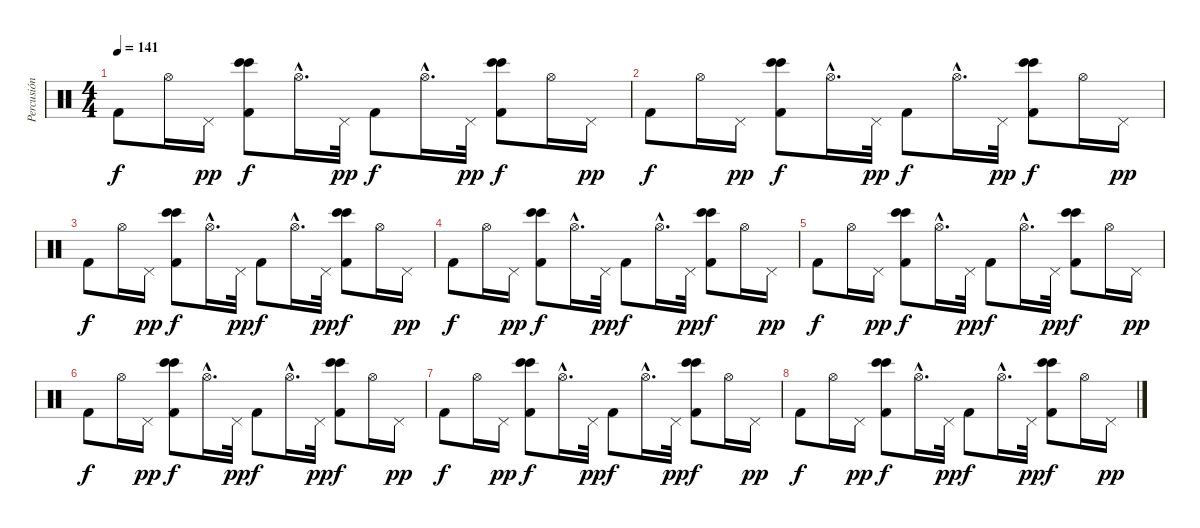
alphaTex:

\track ("Percusión" "Percusión") {instrument percussion}
\staff {score}
\articulation defaults
\ts (4 4)
\tempo 141
\clef neutral
\ks c "Kick (hit) 2".8{dy f volume 7} "Hi-Hat (open)".16 "Pedal Hi-Hat (hit)".16{dy pp}
("Bongo High (hit)" "Bongo High (hit)" "Kick (hit) 2").8{dy f} "Hi-Hat (open)"{hac}.16{d} "Pedal Hi-Hat (hit)".32{dy pp} "Kick (hit) 2".8{dy f} "Hi-Hat (open)"{hac}.16{d} "Pedal Hi-Hat (hit)".32{dy pp} ("Bongo High (hit)" "Bongo High (hit)" "Kick (hit) 2").8{dy f} "Hi-Hat (open)".16 "Pedal Hi-Hat (hit)".16{dy pp} |
"Kick (hit) 2".8{dy f} "Hi-Hat (open)".16 "Pedal Hi-Hat (hit)".16{dy pp} ("Bongo High (hit)" "Bongo High (hit)" "Kick (hit) 2").8{dy f} "Hi-Hat (open)"{hac}.16{d} "Pedal Hi-Hat (hit)".32{dy pp} "Kick (hit) 2".8{dy f} "Hi-Hat (open)"{hac}.16{d} "Pedal Hi-Hat (hit)".32{dy pp} ("Bongo High (hit)" "Bongo High (hit)" "Kick (hit) 2").8{dy f} "Hi-Hat (open)".16 "Pedal Hi-Hat (hit)".16{dy pp} |
"Kick (hit) 2".8{dy f} "Hi-Hat (open)".16 "Pedal Hi-Hat (hit)".16{dy pp} ("Bongo High (hit)" "Bongo High (hit)" "Kick (hit) 2").8{dy f} "Hi-Hat (open)"{hac}.16{d} "Pedal Hi-Hat (hit)".32{dy pp} "Kick (hit) 2".8{dy f} "Hi-Hat (open)"{hac}.16{d} "Pedal Hi-Hat (hit)".32{dy pp} ("Bongo High (hit)" "Bongo High (hit)" "Kick (hit) 2").8{dy f} "Hi-Hat (open)".16 "Pedal Hi-Hat (hit)".16{dy pp} |
"Kick (hit) 2".8{dy f} "Hi-Hat (open)".16 "Pedal Hi-Hat (hit)".16{dy pp} ("Bongo High (hit)" "Bongo High (hit)" "Kick (hit) 2").8{dy f} "Hi-Hat (open)"{hac}.16{d} "Pedal Hi-Hat (hit)".32{dy pp} "Kick (hit) 2".8{dy f} "Hi-Hat (open)"{hac}.16{d} "Pedal Hi-Hat (hit)".32{dy pp} ("Bongo High (hit)" "Bongo High (hit)" "Kick (hit) 2").8{dy f} "Hi-Hat (open)".16 "Pedal Hi-Hat (hit)".16{dy pp} |
"Kick (hit) 2".8{dy f volume 0} "Hi-Hat (open)".16 "Pedal Hi-Hat (hit)".16{dy pp} ("Bongo High (hit)" "Bongo High (hit)" "Kick (hit) 2").8{dy f} "Hi-Hat (open)"{hac}.16{d} "Pedal Hi-Hat (hit)".32{dy pp} "Kick (hit) 2".8{dy f} "Hi-Hat (open)"{hac}.16{d} "Pedal Hi-Hat (hit)".32{dy pp} ("Bongo High (hit)" "Bongo High (hit)" "Kick (hit) 2").8{dy f} "Hi-Hat (open)".16 "Pedal Hi-Hat (hit)".16{dy pp} |
"Kick (hit) 2".8{dy f} "Hi-Hat (open)".16 "Pedal Hi-Hat (hit)".16{dy pp} ("Bongo High (hit)" "Bongo High (hit)" "Kick (hit) 2").8{dy f} "Hi-Hat (open)"{hac}.16{d} "Pedal Hi-Hat (hit)".32{dy pp} "Kick (hit) 2".8{dy f} "Hi-Hat (open)"{hac}.16{d} "Pedal Hi-Hat (hit)".32{dy pp} ("Bongo High (hit)" "Bongo High (hit)" "Kick (hit) 2").8{dy f} "Hi-Hat (open)".16 "Pedal Hi-Hat (hit)".16{dy pp} |
"Kick (hit) 2".8{dy f} "Hi-Hat (open)".16 "Pedal Hi-Hat (hit)".16{dy pp} ("Bongo High (hit)" "Bongo High (hit)" "Kick (hit) 2").8{dy f} "Hi-Hat (open)"{hac}.16{d} "Pedal Hi-Hat (hit)".32{dy pp} "Kick (hit) 2".8{dy f} "Hi-Hat (open)"{hac}.16{d} "Pedal Hi-Hat (hit)".32{dy pp} ("Bongo High (hit)" "Bongo High (hit)" "Kick (hit) 2").8{dy f} "Hi-Hat (open)".16 "Pedal Hi-Hat (hit)".16{dy pp} |
"Kick (hit) 2".8{dy f} "Hi-Hat (open)".16 "Pedal Hi-Hat (hit)".16{dy pp} ("Bongo High (hit)" "Bongo High (hit)" "Kick (hit) 2").8{dy f} "Hi-Hat (open)"{hac}.16{d} "Pedal Hi-Hat (hit)".32{dy pp} "Kick (hit) 2".8{dy f} "Hi-Hat (open)"{hac}.16{d} "Pedal Hi-Hat (hit)".32{dy pp} ("Bongo High (hit)" "Bongo High (hit)" "Kick (hit) 2").8{dy f} "Hi-Hat (open)".16 "Pedal Hi-Hat (hit)".16{dy pp}
